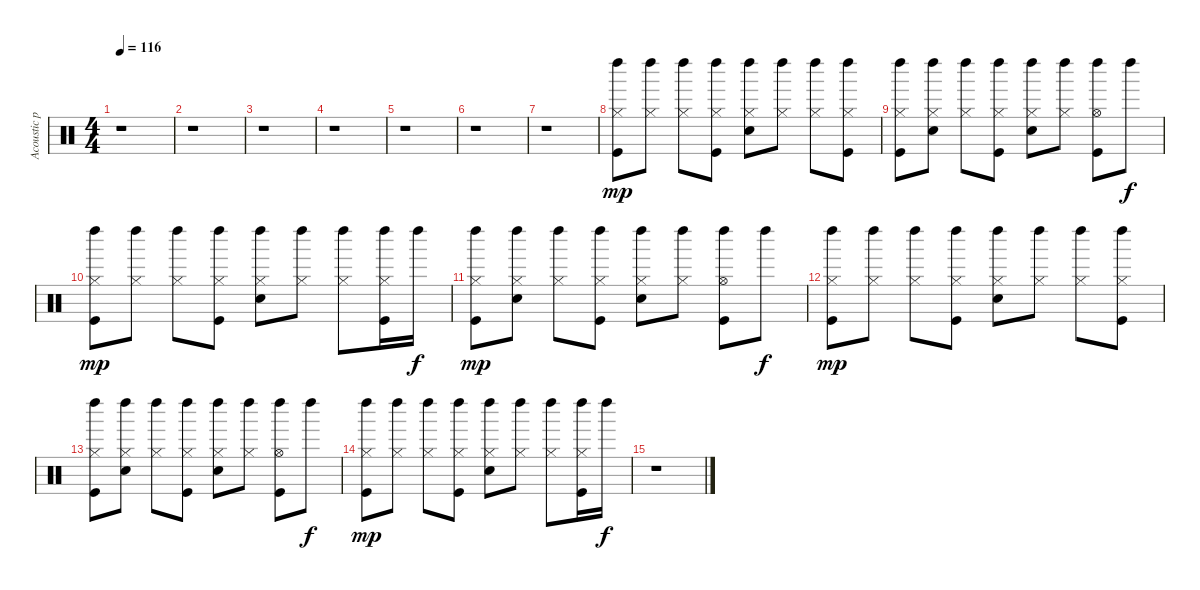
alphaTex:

\track ("Acoustic part Drums" "Acoustic p") {instrument percussion}
\staff {score}
\articulation defaults
\ts (4 4)
\tempo 116
\clef neutral
\ks c
r.1{dy f} |
r.1 |
r.1 |
r.1 |
r.1 |
r.1 |
r.1 |
("Kick (hit)" "Hi-Hat (closed)" "Left Maraca (hit)").8{dy mp} ("Hi-Hat (closed)" "Left Maraca (hit)").8 ("Hi-Hat (closed)" "Left Maraca (hit)").8 ("Kick (hit)" "Hi-Hat (closed)" "Left Maraca (hit)").8 ("Hi-Hat (closed)" "Electric Snare (hit)" "Left Maraca (hit)").8 ("Hi-Hat (closed)" "Left Maraca (hit)").8 ("Hi-Hat (closed)" "Left Maraca (hit)").8 ("Kick (hit)" "Hi-Hat (closed)" "Left Maraca (hit)").8 |
("Kick (hit)" "Hi-Hat (closed)" "Left Maraca (hit)").8 ("Hi-Hat (closed)" "Electric Snare (hit)" "Left Maraca (hit)").8 ("Hi-Hat (closed)" "Left Maraca (hit)").8 ("Kick (hit)" "Hi-Hat (closed)" "Left Maraca (hit)").8 ("Hi-Hat (closed)" "Electric Snare (hit)" "Left Maraca (hit)").8 ("Hi-Hat (closed)" "Left Maraca (hit)").8 ("Kick (hit)" "Hi-Hat (open)" "Left Maraca (hit)").8 "Left Maraca (hit)".8{dy f} |
("Kick (hit)" "Hi-Hat (closed)" "Left Maraca (hit)").8{dy mp} ("Hi-Hat (closed)" "Left Maraca (hit)").8 ("Hi-Hat (closed)" "Left Maraca (hit)").8 ("Kick (hit)" "Hi-Hat (closed)" "Left Maraca (hit)").8 ("Hi-Hat (closed)" "Electric Snare (hit)" "Left Maraca (hit)").8 ("Hi-Hat (closed)" "Left Maraca (hit)").8 ("Hi-Hat (closed)" "Left Maraca (hit)").8 ("Kick (hit)" "Hi-Hat (closed)" "Left Maraca (hit)").16 "Left Maraca (hit)".16{dy f} |
("Kick (hit)" "Hi-Hat (closed)" "Left Maraca (hit)").8{dy mp} ("Hi-Hat (closed)" "Electric Snare (hit)" "Left Maraca (hit)").8 ("Hi-Hat (closed)" "Left Maraca (hit)").8 ("Kick (hit)" "Hi-Hat (closed)" "Left Maraca (hit)").8 ("Hi-Hat (closed)" "Electric Snare (hit)" "Left Maraca (hit)").8 ("Hi-Hat (closed)" "Left Maraca (hit)").8 ("Kick (hit)" "Hi-Hat (open)" "Left Maraca (hit)").8 "Left Maraca (hit)".8{dy f} |
("Kick (hit)" "Hi-Hat (closed)" "Left Maraca (hit)").8{dy mp} ("Hi-Hat (closed)" "Left Maraca (hit)").8 ("Hi-Hat (closed)" "Left Maraca (hit)").8 ("Kick (hit)" "Hi-Hat (closed)" "Left Maraca (hit)").8 ("Hi-Hat (closed)" "Electric Snare (hit)" "Left Maraca (hit)").8 ("Hi-Hat (closed)" "Left Maraca (hit)").8 ("Hi-Hat (closed)" "Left Maraca (hit)").8 ("Kick (hit)" "Hi-Hat (closed)" "Left Maraca (hit)").8 |
("Kick (hit)" "Hi-Hat (closed)" "Left Maraca (hit)").8 ("Hi-Hat (closed)" "Electric Snare (hit)" "Left Maraca (hit)").8 ("Hi-Hat (closed)" "Left Maraca (hit)").8 ("Kick (hit)" "Hi-Hat (closed)" "Left Maraca (hit)").8 ("Hi-Hat (closed)" "Electric Snare (hit)" "Left Maraca (hit)").8 ("Hi-Hat (closed)" "Left Maraca (hit)").8 ("Kick (hit)" "Hi-Hat (open)" "Left Maraca (hit)").8 "Left Maraca (hit)".8{dy f} |
("Kick (hit)" "Hi-Hat (closed)" "Left Maraca (hit)").8{dy mp} ("Hi-Hat (closed)" "Left Maraca (hit)").8 ("Hi-Hat (closed)" "Left Maraca (hit)").8 ("Kick (hit)" "Hi-Hat (closed)" "Left Maraca (hit)").8 ("Hi-Hat (closed)" "Electric Snare (hit)" "Left Maraca (hit)").8 ("Hi-Hat (closed)" "Left Maraca (hit)").8 ("Hi-Hat (closed)" "Left Maraca (hit)").8 ("Kick (hit)" "Hi-Hat (closed)" "Left Maraca (hit)").16 "Left Maraca (hit)".16{dy f} |
r.1
